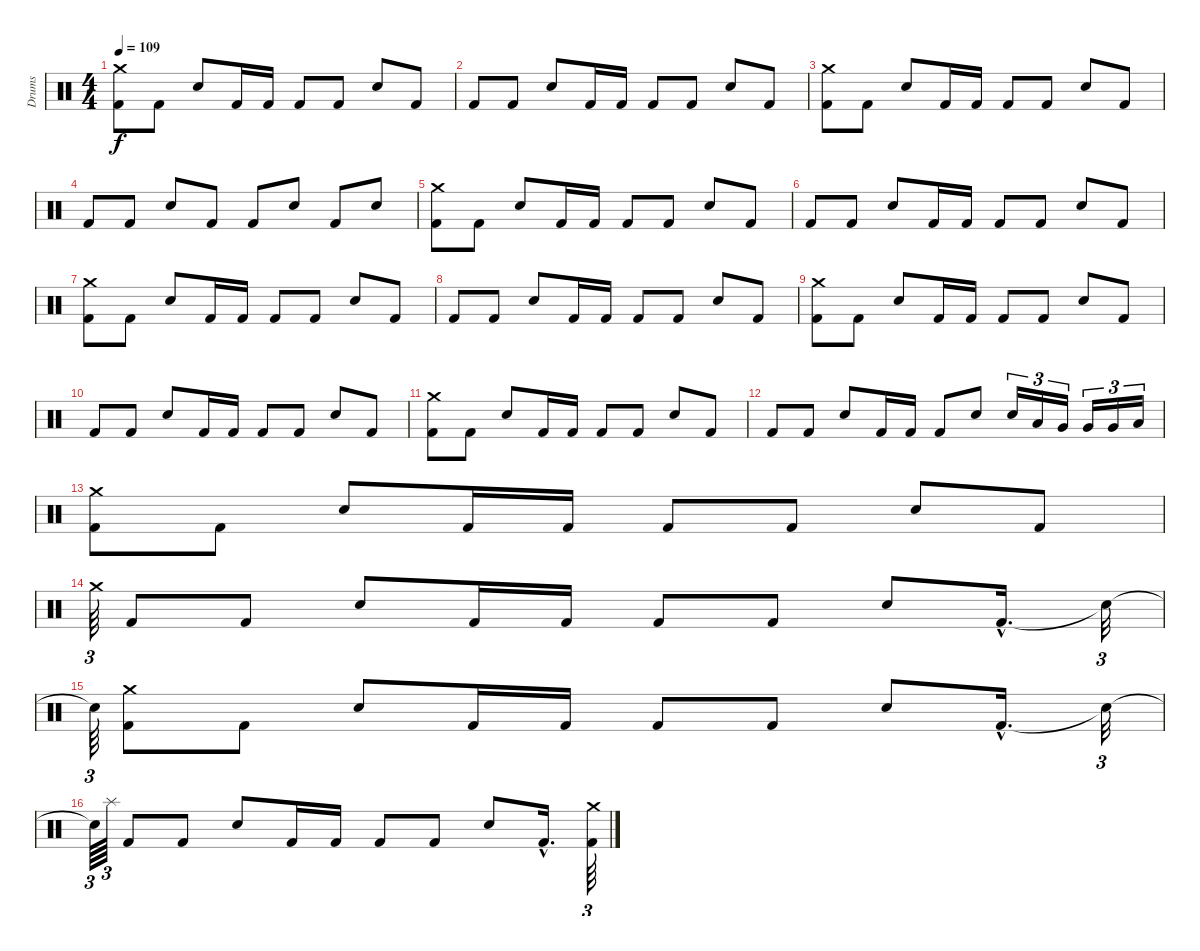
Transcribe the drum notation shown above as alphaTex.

\track ("Drums" "Drums") {instrument percussion}
\staff {score}
\articulation defaults
\ts (4 4)
\tempo 109
\clef neutral
\ks c
("Crash medium (hit)" "Kick (hit) 2").8{dy f} "Kick (hit) 2".8 "Snare (hit) 2".8 "Kick (hit) 2".16 "Kick (hit) 2".16 "Kick (hit) 2".8 "Kick (hit) 2".8 "Snare (hit) 2".8 "Kick (hit) 2".8 |
"Kick (hit) 2".8 "Kick (hit) 2".8 "Snare (hit) 2".8 "Kick (hit) 2".16 "Kick (hit) 2".16 "Kick (hit) 2".8 "Kick (hit) 2".8 "Snare (hit) 2".8 "Kick (hit) 2".8 |
("Crash medium (hit)" "Kick (hit) 2").8 "Kick (hit) 2".8 "Snare (hit) 2".8 "Kick (hit) 2".16 "Kick (hit) 2".16 "Kick (hit) 2".8 "Kick (hit) 2".8 "Snare (hit) 2".8 "Kick (hit) 2".8 |
"Kick (hit) 2".8 "Kick (hit) 2".8 "Snare (hit) 2".8 "Kick (hit) 2".8 "Kick (hit) 2".8 "Snare (hit) 2".8 "Kick (hit) 2".8 "Snare (hit) 2".8 |
("Crash medium (hit)" "Kick (hit) 2").8 "Kick (hit) 2".8 "Snare (hit) 2".8 "Kick (hit) 2".16 "Kick (hit) 2".16 "Kick (hit) 2".8 "Kick (hit) 2".8 "Snare (hit) 2".8 "Kick (hit) 2".8 |
"Kick (hit) 2".8 "Kick (hit) 2".8 "Snare (hit) 2".8 "Kick (hit) 2".16 "Kick (hit) 2".16 "Kick (hit) 2".8 "Kick (hit) 2".8 "Snare (hit) 2".8 "Kick (hit) 2".8 |
("Crash medium (hit)" "Kick (hit) 2").8 "Kick (hit) 2".8 "Snare (hit) 2".8 "Kick (hit) 2".16 "Kick (hit) 2".16 "Kick (hit) 2".8 "Kick (hit) 2".8 "Snare (hit) 2".8 "Kick (hit) 2".8 |
"Kick (hit) 2".8 "Kick (hit) 2".8 "Snare (hit) 2".8 "Kick (hit) 2".16 "Kick (hit) 2".16 "Kick (hit) 2".8 "Kick (hit) 2".8 "Snare (hit) 2".8 "Kick (hit) 2".8 |
("Crash medium (hit)" "Kick (hit) 2").8 "Kick (hit) 2".8 "Snare (hit) 2".8 "Kick (hit) 2".16 "Kick (hit) 2".16 "Kick (hit) 2".8 "Kick (hit) 2".8 "Snare (hit) 2".8 "Kick (hit) 2".8 |
"Kick (hit) 2".8 "Kick (hit) 2".8 "Snare (hit) 2".8 "Kick (hit) 2".16 "Kick (hit) 2".16 "Kick (hit) 2".8 "Kick (hit) 2".8 "Snare (hit) 2".8 "Kick (hit) 2".8 |
("Crash medium (hit)" "Kick (hit) 2").8 "Kick (hit) 2".8 "Snare (hit) 2".8 "Kick (hit) 2".16 "Kick (hit) 2".16 "Kick (hit) 2".8 "Kick (hit) 2".8 "Snare (hit) 2".8 "Kick (hit) 2".8 |
"Kick (hit) 2".8 "Kick (hit) 2".8 "Snare (hit) 2".8 "Kick (hit) 2".16 "Kick (hit) 2".16 "Kick (hit) 2".8 "Snare (hit) 2".8 "Snare (hit) 2".16{tu (3 2)} "Low Tom (hit)".16{tu (3 2)} "Very Low Tom (hit)".16{tu (3 2)} "Very Low Tom (hit)".16{tu (3 2)} "Very Low Tom (hit)".16{tu (3 2)} "Low Floor Tom (hit)".16{tu (3 2)} |
("Crash medium (hit)" "Kick (hit) 2").8 "Kick (hit) 2".8 "Snare (hit) 2".8 "Kick (hit) 2".16 "Kick (hit) 2".16 "Kick (hit) 2".8 "Kick (hit) 2".8 "Snare (hit) 2".8 "Kick (hit) 2".8 |
"Crash medium (hit)".64{tu (3 2)} "Kick (hit) 2".8 "Kick (hit) 2".8 "Snare (hit) 2".8 "Kick (hit) 2".16 "Kick (hit) 2".16 "Kick (hit) 2".8 "Kick (hit) 2".8 "Snare (hit) 2".8 "Kick (hit) 2"{hac}.16{d} "Snare (hit)"{t}.32{tu (3 2)} |
"Snare (hit)"{t}.64{tu (3 2)} ("Crash medium (hit)" "Kick (hit) 2").8 "Kick (hit) 2".8 "Snare (hit) 2".8 "Kick (hit) 2".16 "Kick (hit) 2".16 "Kick (hit) 2".8 "Kick (hit) 2".8 "Snare (hit) 2".8 "Kick (hit) 2"{hac}.16{d} "Snare (hit)"{t}.32{tu (3 2)} |
"Snare (hit)"{t}.64{tu (3 2)} "Splash (hit)".64{tu (3 2)} "Kick (hit) 2".8 "Kick (hit) 2".8 "Snare (hit) 2".8 "Kick (hit) 2".16 "Kick (hit) 2".16 "Kick (hit) 2".8 "Kick (hit) 2".8 "Snare (hit) 2".8 "Kick (hit) 2"{hac}.16{d} ("Crash medium (hit)" "Kick (hit) 2").64{tu (3 2)}
